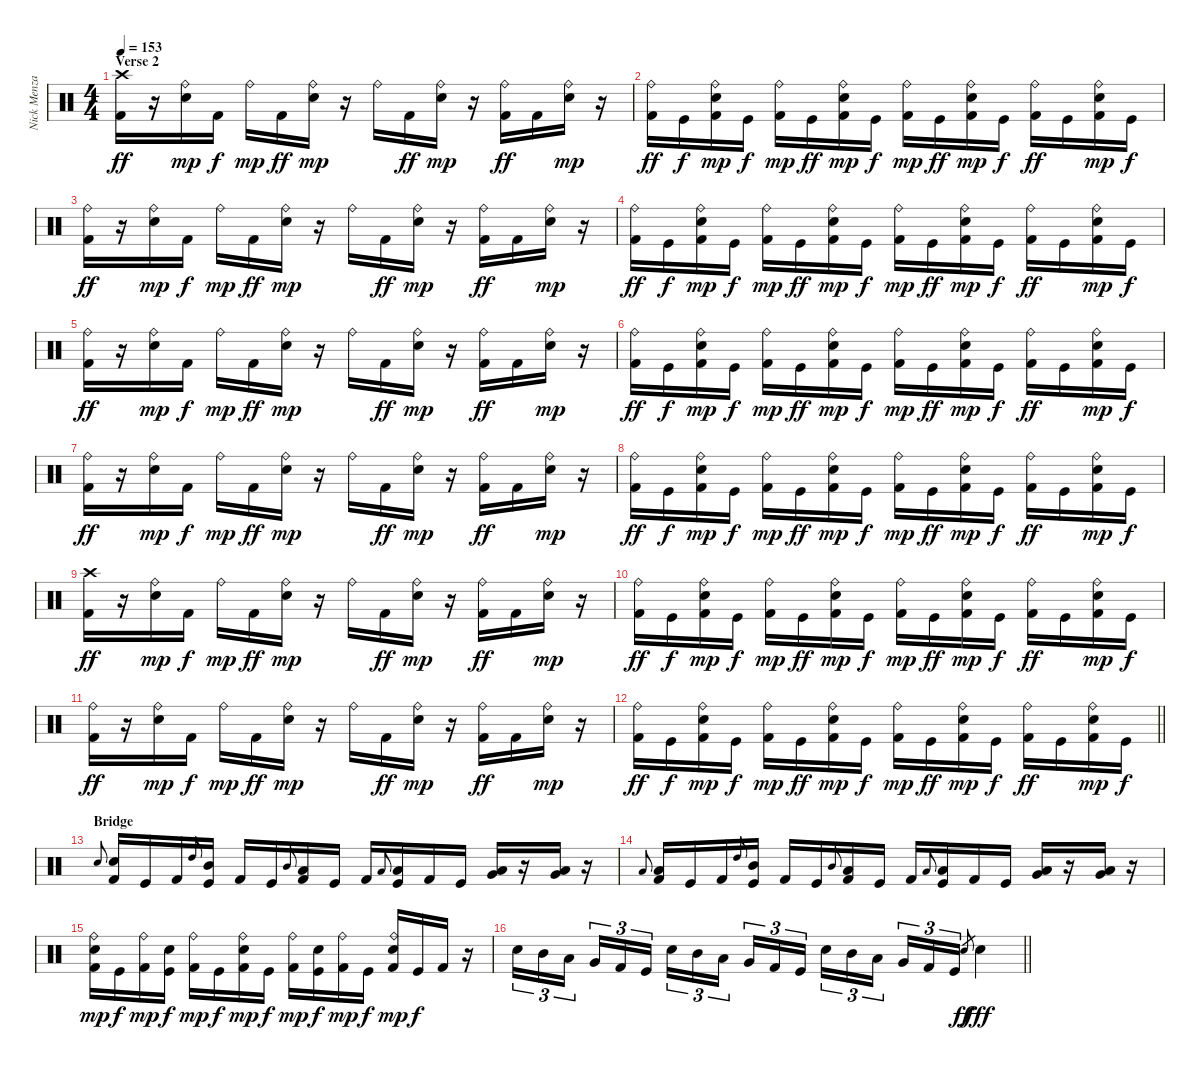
\track ("Nick Menza" "Nick Menza") {instrument percussion}
\staff {score}
\articulation defaults
\ts (4 4)
\section ("" "Verse 2")
\tempo 153
\clef neutral
\ks c
("Crash high (hit)" "Kick (hit) 2").16{dy ff} r.16 ("Ride (bell)" "Electric Snare (hit)").16{dy mp} "Kick (hit) 2".16{dy f} "Ride (bell)".16{dy mp} "Kick (hit) 2".16{dy ff} ("Ride (bell)" "Electric Snare (hit)").16{dy mp} r.16 "Ride (bell)".16 "Kick (hit) 2".16{dy ff} ("Ride (bell)" "Electric Snare (hit)").16{dy mp} r.16 ("Ride (bell)" "Kick (hit) 2").16{dy ff} "Kick (hit) 2".16 ("Ride (bell)" "Electric Snare (hit)").16{dy mp} r.16 |
("Ride (bell)" "Kick (hit) 2").16{dy ff} "Kick (hit)".16{dy f} ("Ride (bell)" "Electric Snare (hit)" "Kick (hit) 2").16{dy mp} "Kick (hit)".16{dy f} ("Ride (bell)" "Kick (hit) 2").16{dy mp} "Kick (hit)".16{dy ff} ("Ride (bell)" "Electric Snare (hit)" "Kick (hit) 2").16{dy mp} "Kick (hit)".16{dy f} ("Ride (bell)" "Kick (hit) 2").16{dy mp} "Kick (hit)".16{dy ff} ("Ride (bell)" "Electric Snare (hit)" "Kick (hit) 2").16{dy mp} "Kick (hit)".16{dy f} ("Ride (bell)" "Kick (hit) 2").16{dy ff} "Kick (hit)".16 ("Ride (bell)" "Electric Snare (hit)" "Kick (hit) 2").16{dy mp} "Kick (hit)".16{dy f} |
("Ride (bell)" "Kick (hit) 2").16{dy ff} r.16 ("Ride (bell)" "Electric Snare (hit)").16{dy mp} "Kick (hit) 2".16{dy f} "Ride (bell)".16{dy mp} "Kick (hit) 2".16{dy ff} ("Ride (bell)" "Electric Snare (hit)").16{dy mp} r.16 "Ride (bell)".16 "Kick (hit) 2".16{dy ff} ("Ride (bell)" "Electric Snare (hit)").16{dy mp} r.16 ("Ride (bell)" "Kick (hit) 2").16{dy ff} "Kick (hit) 2".16 ("Ride (bell)" "Electric Snare (hit)").16{dy mp} r.16 |
("Ride (bell)" "Kick (hit) 2").16{dy ff} "Kick (hit)".16{dy f} ("Ride (bell)" "Electric Snare (hit)" "Kick (hit) 2").16{dy mp} "Kick (hit)".16{dy f} ("Ride (bell)" "Kick (hit) 2").16{dy mp} "Kick (hit)".16{dy ff} ("Ride (bell)" "Electric Snare (hit)" "Kick (hit) 2").16{dy mp} "Kick (hit)".16{dy f} ("Ride (bell)" "Kick (hit) 2").16{dy mp} "Kick (hit)".16{dy ff} ("Ride (bell)" "Electric Snare (hit)" "Kick (hit) 2").16{dy mp} "Kick (hit)".16{dy f} ("Ride (bell)" "Kick (hit) 2").16{dy ff} "Kick (hit)".16 ("Ride (bell)" "Electric Snare (hit)" "Kick (hit) 2").16{dy mp} "Kick (hit)".16{dy f} |
("Ride (bell)" "Kick (hit) 2").16{dy ff} r.16 ("Ride (bell)" "Electric Snare (hit)").16{dy mp} "Kick (hit) 2".16{dy f} "Ride (bell)".16{dy mp} "Kick (hit) 2".16{dy ff} ("Ride (bell)" "Electric Snare (hit)").16{dy mp} r.16 "Ride (bell)".16 "Kick (hit) 2".16{dy ff} ("Ride (bell)" "Electric Snare (hit)").16{dy mp} r.16 ("Ride (bell)" "Kick (hit) 2").16{dy ff} "Kick (hit) 2".16 ("Ride (bell)" "Electric Snare (hit)").16{dy mp} r.16 |
("Ride (bell)" "Kick (hit) 2").16{dy ff} "Kick (hit)".16{dy f} ("Ride (bell)" "Electric Snare (hit)" "Kick (hit) 2").16{dy mp} "Kick (hit)".16{dy f} ("Ride (bell)" "Kick (hit) 2").16{dy mp} "Kick (hit)".16{dy ff} ("Ride (bell)" "Electric Snare (hit)" "Kick (hit) 2").16{dy mp} "Kick (hit)".16{dy f} ("Ride (bell)" "Kick (hit) 2").16{dy mp} "Kick (hit)".16{dy ff} ("Ride (bell)" "Electric Snare (hit)" "Kick (hit) 2").16{dy mp} "Kick (hit)".16{dy f} ("Ride (bell)" "Kick (hit) 2").16{dy ff} "Kick (hit)".16 ("Ride (bell)" "Electric Snare (hit)" "Kick (hit) 2").16{dy mp} "Kick (hit)".16{dy f} |
("Ride (bell)" "Kick (hit) 2").16{dy ff} r.16 ("Ride (bell)" "Electric Snare (hit)").16{dy mp} "Kick (hit) 2".16{dy f} "Ride (bell)".16{dy mp} "Kick (hit) 2".16{dy ff} ("Ride (bell)" "Electric Snare (hit)").16{dy mp} r.16 "Ride (bell)".16 "Kick (hit) 2".16{dy ff} ("Ride (bell)" "Electric Snare (hit)").16{dy mp} r.16 ("Ride (bell)" "Kick (hit) 2").16{dy ff} "Kick (hit) 2".16 ("Ride (bell)" "Electric Snare (hit)").16{dy mp} r.16 |
("Ride (bell)" "Kick (hit) 2").16{dy ff} "Kick (hit)".16{dy f} ("Ride (bell)" "Electric Snare (hit)" "Kick (hit) 2").16{dy mp} "Kick (hit)".16{dy f} ("Ride (bell)" "Kick (hit) 2").16{dy mp} "Kick (hit)".16{dy ff} ("Ride (bell)" "Electric Snare (hit)" "Kick (hit) 2").16{dy mp} "Kick (hit)".16{dy f} ("Ride (bell)" "Kick (hit) 2").16{dy mp} "Kick (hit)".16{dy ff} ("Ride (bell)" "Electric Snare (hit)" "Kick (hit) 2").16{dy mp} "Kick (hit)".16{dy f} ("Ride (bell)" "Kick (hit) 2").16{dy ff} "Kick (hit)".16 ("Ride (bell)" "Electric Snare (hit)" "Kick (hit) 2").16{dy mp} "Kick (hit)".16{dy f} |
("Crash high (hit)" "Kick (hit) 2").16{dy ff} r.16 ("Ride (bell)" "Electric Snare (hit)").16{dy mp} "Kick (hit) 2".16{dy f} "Ride (bell)".16{dy mp} "Kick (hit) 2".16{dy ff} ("Ride (bell)" "Electric Snare (hit)").16{dy mp} r.16 "Ride (bell)".16 "Kick (hit) 2".16{dy ff} ("Ride (bell)" "Electric Snare (hit)").16{dy mp} r.16 ("Ride (bell)" "Kick (hit) 2").16{dy ff} "Kick (hit) 2".16 ("Ride (bell)" "Electric Snare (hit)").16{dy mp} r.16 |
("Ride (bell)" "Kick (hit) 2").16{dy ff} "Kick (hit)".16{dy f} ("Ride (bell)" "Electric Snare (hit)" "Kick (hit) 2").16{dy mp} "Kick (hit)".16{dy f} ("Ride (bell)" "Kick (hit) 2").16{dy mp} "Kick (hit)".16{dy ff} ("Ride (bell)" "Electric Snare (hit)" "Kick (hit) 2").16{dy mp} "Kick (hit)".16{dy f} ("Ride (bell)" "Kick (hit) 2").16{dy mp} "Kick (hit)".16{dy ff} ("Ride (bell)" "Electric Snare (hit)" "Kick (hit) 2").16{dy mp} "Kick (hit)".16{dy f} ("Ride (bell)" "Kick (hit) 2").16{dy ff} "Kick (hit)".16 ("Ride (bell)" "Electric Snare (hit)" "Kick (hit) 2").16{dy mp} "Kick (hit)".16{dy f} |
("Ride (bell)" "Kick (hit) 2").16{dy ff} r.16 ("Ride (bell)" "Electric Snare (hit)").16{dy mp} "Kick (hit) 2".16{dy f} "Ride (bell)".16{dy mp} "Kick (hit) 2".16{dy ff} ("Ride (bell)" "Electric Snare (hit)").16{dy mp} r.16 "Ride (bell)".16 "Kick (hit) 2".16{dy ff} ("Ride (bell)" "Electric Snare (hit)").16{dy mp} r.16 ("Ride (bell)" "Kick (hit) 2").16{dy ff} "Kick (hit) 2".16 ("Ride (bell)" "Electric Snare (hit)").16{dy mp} r.16 |
\barLineRight lightlight
("Ride (bell)" "Kick (hit) 2").16{dy ff} "Kick (hit)".16{dy f} ("Ride (bell)" "Electric Snare (hit)" "Kick (hit) 2").16{dy mp} "Kick (hit)".16{dy f} ("Ride (bell)" "Kick (hit) 2").16{dy mp} "Kick (hit)".16{dy ff} ("Ride (bell)" "Electric Snare (hit)" "Kick (hit) 2").16{dy mp} "Kick (hit)".16{dy f} ("Ride (bell)" "Kick (hit) 2").16{dy mp} "Kick (hit)".16{dy ff} ("Ride (bell)" "Electric Snare (hit)" "Kick (hit) 2").16{dy mp} "Kick (hit)".16{dy f} ("Ride (bell)" "Kick (hit) 2").16{dy ff} "Kick (hit)".16 ("Ride (bell)" "Electric Snare (hit)" "Kick (hit) 2").16{dy mp} "Kick (hit)".16{dy f} |
\section ("" "Bridge")
"Electric Snare (hit)".8{gr onbeat} ("Electric Snare (hit)" "Kick (hit) 2").16 "Kick (hit)".16 "Kick (hit) 2".16 "High Tom (hit)".8{gr onbeat} ("Mid Tom (hit)" "Kick (hit)").16 "Kick (hit) 2".16 "Kick (hit)".16 "Mid Tom (hit)".8{gr onbeat} ("Low Tom (hit)" "Kick (hit) 2").16 "Kick (hit)".16 "Kick (hit) 2".16 "Low Tom (hit)".8{gr onbeat} ("Low Tom (hit)" "Kick (hit)").16 "Kick (hit) 2".16 "Kick (hit)".16 ("Low Floor Tom (hit)" "Very Low Tom (hit)").16 r.16 ("Low Floor Tom (hit)" "Very Low Tom (hit)").16 r.16 |
"Low Tom (hit)".8{gr onbeat} ("Low Tom (hit)" "Kick (hit) 2").16 "Kick (hit)".16 "Kick (hit) 2".16 "High Tom (hit)".8{gr onbeat} ("Mid Tom (hit)" "Kick (hit)").16 "Kick (hit) 2".16 "Kick (hit)".16 "Mid Tom (hit)".8{gr onbeat} ("Low Tom (hit)" "Kick (hit) 2").16 "Kick (hit)".16 "Kick (hit) 2".16 "Low Tom (hit)".8{gr onbeat} ("Low Tom (hit)" "Kick (hit)").16 "Kick (hit) 2".16 "Kick (hit)".16 ("Low Floor Tom (hit)" "Very Low Tom (hit)").16 r.16 ("Low Floor Tom (hit)" "Very Low Tom (hit)").16 r.16 |
("Ride (bell)" "Electric Snare (hit)" "Kick (hit) 2").16{dy mp} "Kick (hit)".16{dy f} ("Ride (bell)" "Kick (hit) 2").16{dy mp} ("Electric Snare (hit)" "Kick (hit)").16{dy f} ("Ride (bell)" "Kick (hit) 2").16{dy mp} "Kick (hit)".16{dy f} ("Ride (bell)" "Electric Snare (hit)" "Kick (hit) 2").16{dy mp} "Kick (hit)".16{dy f} ("Ride (bell)" "Kick (hit) 2").16{dy mp} ("Electric Snare (hit)" "Kick (hit)").16{dy f} ("Ride (bell)" "Kick (hit) 2").16{dy mp} "Kick (hit)".16{dy f} ("Ride (bell)" "Electric Snare (hit)" "Kick (hit) 2").16{dy mp} "Kick (hit)".16{dy f} "Kick (hit) 2".16 r.16 |
\barLineRight lightlight "Electric Snare (hit)".16{tu (3 2)} "Mid Tom (hit)".16{tu (3 2)} "Low Tom (hit)".16{tu (3 2) beam splitsecondary} "Very Low Tom (hit)".16{tu (3 2)} "Kick (hit) 2".16{tu (3 2)} "Kick (hit)".16{tu (3 2)} "Electric Snare (hit)".16{tu (3 2)} "Mid Tom (hit)".16{tu (3 2)} "Low Tom (hit)".16{tu (3 2) beam splitsecondary} "Very Low Tom (hit)".16{tu (3 2)} "Kick (hit) 2".16{tu (3 2)} "Kick (hit)".16{tu (3 2)} "Electric Snare (hit)".16{tu (3 2)} "Mid Tom (hit)".16{tu (3 2)} "Low Tom (hit)".16{tu (3 2) beam splitsecondary} "Very Low Tom (hit)".16{tu (3 2)} "Kick (hit) 2".16{tu (3 2)} "Kick (hit)".16{tu (3 2)} "Electric Snare (hit)".8{gr dy ff} "Electric Snare (hit)".4{dy fff}
